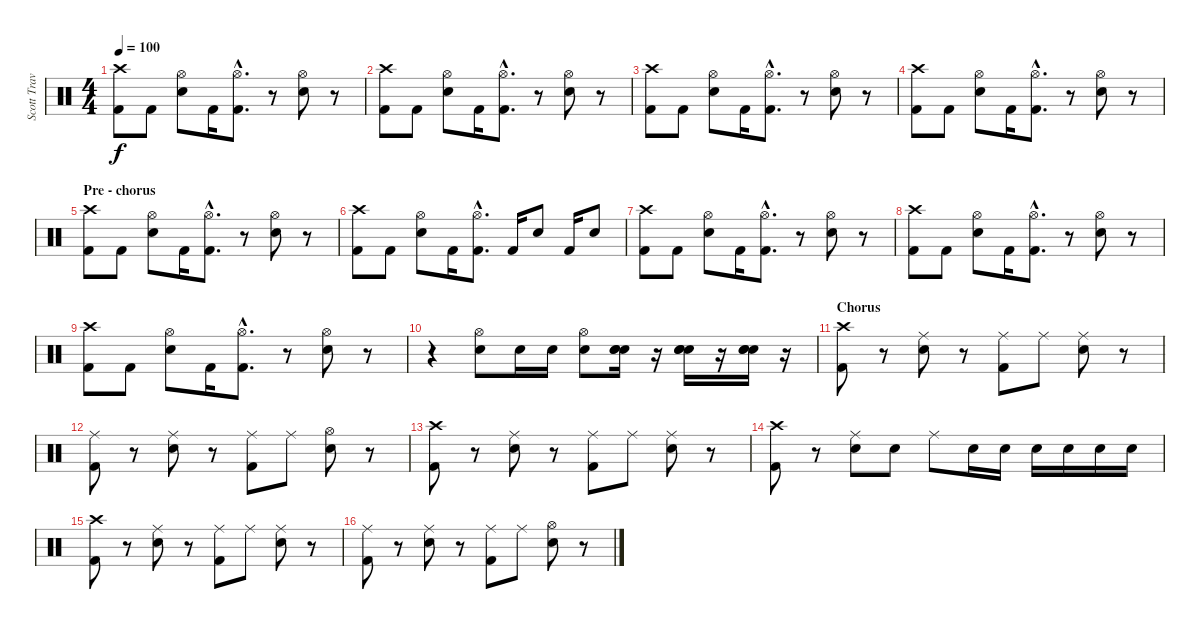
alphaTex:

\track ("Scott Travis" "Scott Trav") {instrument percussion}
\staff {score}
\articulation defaults
\ts (4 4)
\tempo 100
\clef neutral
\ks c
("Crash high (hit)" "Kick (hit) 2").8{dy f} "Kick (hit) 2".8 ("Hi-Hat (open)" "Electric Snare (hit)").8 "Kick (hit) 2".16 ("Hi-Hat (open)"{hac} "Kick (hit) 2"{hac}).8{d} r.8 ("Hi-Hat (open)" "Electric Snare (hit)").8 r.8 |
("Crash high (hit)" "Kick (hit) 2").8 "Kick (hit) 2".8 ("Hi-Hat (open)" "Electric Snare (hit)").8 "Kick (hit) 2".16 ("Hi-Hat (open)"{hac} "Kick (hit) 2"{hac}).8{d} r.8 ("Hi-Hat (open)" "Electric Snare (hit)").8 r.8 |
("Crash high (hit)" "Kick (hit) 2").8 "Kick (hit) 2".8 ("Hi-Hat (open)" "Electric Snare (hit)").8 "Kick (hit) 2".16 ("Hi-Hat (open)"{hac} "Kick (hit) 2"{hac}).8{d} r.8 ("Hi-Hat (open)" "Electric Snare (hit)").8 r.8 |
("Crash high (hit)" "Kick (hit) 2").8 "Kick (hit) 2".8 ("Hi-Hat (open)" "Electric Snare (hit)").8 "Kick (hit) 2".16 ("Hi-Hat (open)"{hac} "Kick (hit) 2"{hac}).8{d} r.8 ("Hi-Hat (open)" "Electric Snare (hit)").8 r.8 |
\section ("" "Pre - chorus")
("Crash high (hit)" "Kick (hit) 2").8 "Kick (hit) 2".8 ("Hi-Hat (open)" "Electric Snare (hit)").8 "Kick (hit) 2".16 ("Hi-Hat (open)"{hac} "Kick (hit) 2"{hac}).8{d} r.8 ("Hi-Hat (open)" "Electric Snare (hit)").8 r.8 |
("Crash high (hit)" "Kick (hit) 2").8 "Kick (hit) 2".8 ("Hi-Hat (open)" "Electric Snare (hit)").8 "Kick (hit) 2".16 ("Hi-Hat (open)"{hac} "Kick (hit) 2"{hac}).8{d} "Kick (hit) 2".16 "Electric Snare (hit)".8 "Kick (hit) 2".16 "Electric Snare (hit)".8 |
("Crash high (hit)" "Kick (hit) 2").8 "Kick (hit) 2".8 ("Hi-Hat (open)" "Electric Snare (hit)").8 "Kick (hit) 2".16 ("Hi-Hat (open)"{hac} "Kick (hit) 2"{hac}).8{d} r.8 ("Hi-Hat (open)" "Electric Snare (hit)").8 r.8 |
("Crash high (hit)" "Kick (hit) 2").8 "Kick (hit) 2".8 ("Hi-Hat (open)" "Electric Snare (hit)").8 "Kick (hit) 2".16 ("Hi-Hat (open)"{hac} "Kick (hit) 2"{hac}).8{d} r.8 ("Hi-Hat (open)" "Electric Snare (hit)").8 r.8 |
("Crash high (hit)" "Kick (hit) 2").8 "Kick (hit) 2".8 ("Hi-Hat (open)" "Electric Snare (hit)").8 "Kick (hit) 2".16 ("Hi-Hat (open)"{hac} "Kick (hit) 2"{hac}).8{d} r.8 ("Hi-Hat (open)" "Electric Snare (hit)").8 r.8 |
r.4 ("Hi-Hat (open)" "Electric Snare (hit)").8 "Electric Snare (hit)".16 "Electric Snare (hit)".16 ("Hi-Hat (open)" "Electric Snare (hit)").8 ("Electric Snare (hit)" "Electric Snare (hit)" "Electric Snare (hit)").16 r.16 ("Electric Snare (hit)" "Electric Snare (hit)" "Electric Snare (hit)").16 r.16 ("Electric Snare (hit)" "Electric Snare (hit)" "Electric Snare (hit)").16 r.16 |
\section ("" "Chorus")
("Crash high (hit)" "Kick (hit) 2").8 r.8 ("Ride (middle)" "Electric Snare (hit)").8 r.8 ("Ride (middle)" "Kick (hit) 2").8 "Ride (middle)".8 ("Ride (middle)" "Electric Snare (hit)").8 r.8 |
("Ride (middle)" "Kick (hit) 2").8 r.8 ("Ride (middle)" "Electric Snare (hit)").8 r.8 ("Ride (middle)" "Kick (hit) 2").8 "Ride (middle)".8 ("Hi-Hat (open)" "Electric Snare (hit)").8 r.8 |
("Crash high (hit)" "Kick (hit) 2").8 r.8 ("Ride (middle)" "Electric Snare (hit)").8 r.8 ("Ride (middle)" "Kick (hit) 2").8 "Ride (middle)".8 ("Ride (middle)" "Electric Snare (hit)").8 r.8 |
("Crash high (hit)" "Kick (hit) 2").8 r.8 ("Ride (middle)" "Electric Snare (hit)").8 "Electric Snare (hit)".8 "Ride (middle)".8 "Electric Snare (hit)".16 "Electric Snare (hit)".16 "Electric Snare (hit)".16 "Electric Snare (hit)".16 "Electric Snare (hit)".16 "Electric Snare (hit)".16 |
("Crash high (hit)" "Kick (hit) 2").8 r.8 ("Ride (middle)" "Electric Snare (hit)").8 r.8 ("Ride (middle)" "Kick (hit) 2").8 "Ride (middle)".8 ("Ride (middle)" "Electric Snare (hit)").8 r.8 |
("Ride (middle)" "Kick (hit) 2").8 r.8 ("Ride (middle)" "Electric Snare (hit)").8 r.8 ("Ride (middle)" "Kick (hit) 2").8 "Ride (middle)".8 ("Hi-Hat (open)" "Electric Snare (hit)").8 r.8
